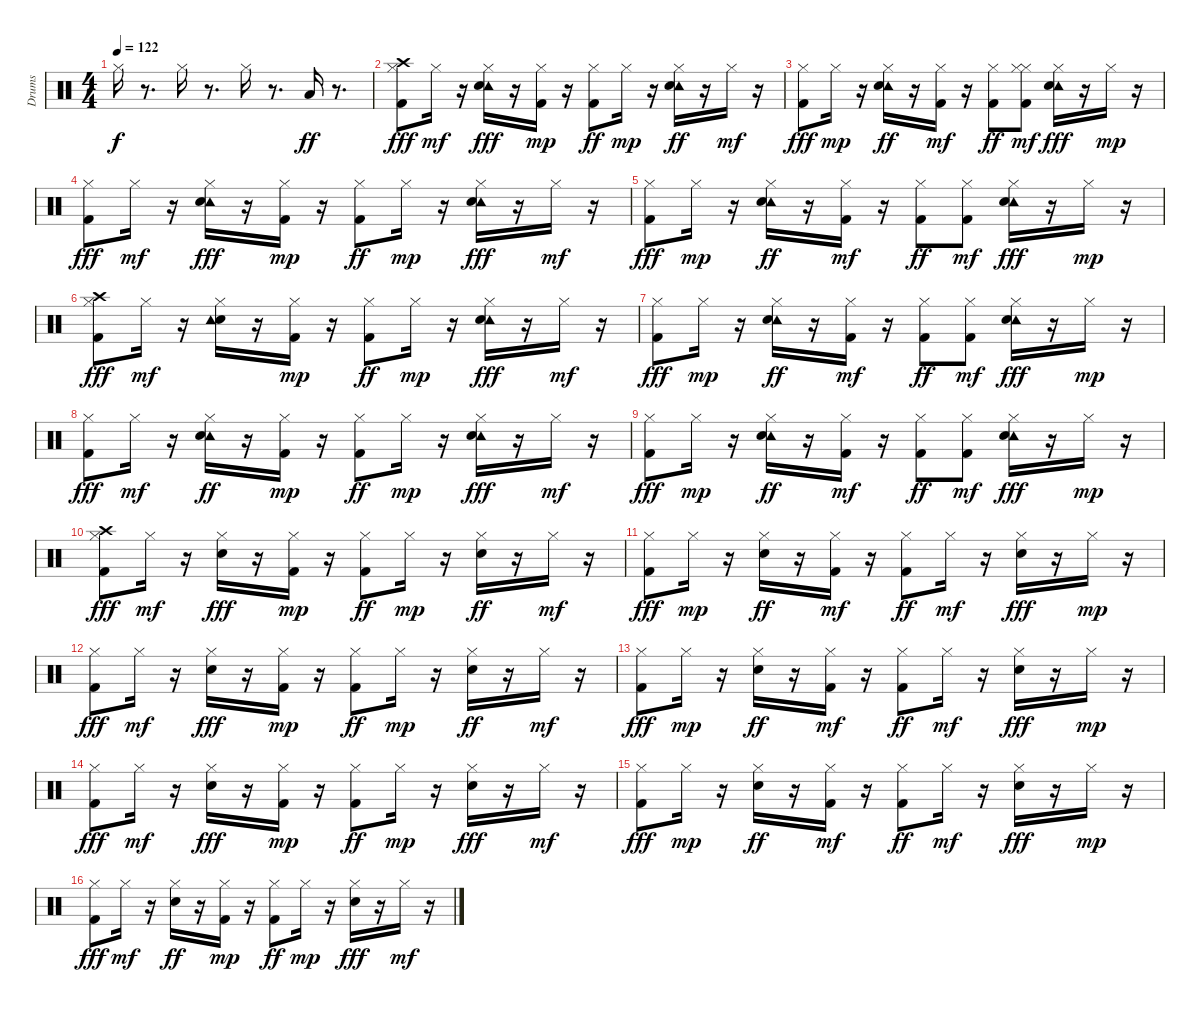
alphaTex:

\track ("Drums" "Drums") {instrument percussion}
\staff {score}
\articulation defaults
\ts (4 4)
\tempo 122
\clef neutral
\ks c "Hi-Hat (closed)".16{dy f}
r.8{d} "Hi-Hat (closed)".16 r.8{d} "Hi-Hat (closed)".16 r.8{d} "Low Tom (hit)".16{dy ff} r.8{d} |
("Crash high (hit)" "Hi-Hat (closed)" "Kick (hit) 2").8{dy fff} "Hi-Hat (closed)".16{dy mf} r.16 ("Tambourine (hit)" "Hi-Hat (closed)" "Snare (hit) 2").16{dy fff} r.16 ("Kick (hit) 2" "Hi-Hat (closed)").16{dy mp} r.16 ("Kick (hit) 2" "Hi-Hat (closed)").8{dy ff} "Hi-Hat (closed)".16{dy mp} r.16 ("Tambourine (hit)" "Snare (hit) 2" "Hi-Hat (closed)").16{dy ff} r.16 "Hi-Hat (closed)".16{dy mf} r.16 |
("Kick (hit) 2" "Hi-Hat (closed)").8{dy fff} "Hi-Hat (closed)".16{dy mp} r.16 ("Tambourine (hit)" "Snare (hit) 2" "Hi-Hat (closed)").16{dy ff} r.16 ("Kick (hit) 2" "Hi-Hat (closed)").16{dy mf} r.16 ("Kick (hit) 2" "Hi-Hat (closed)").8{dy ff} ("Kick (hit) 2" "Hi-Hat (closed)" "Hi-Hat (closed)").8{dy mf} ("Tambourine (hit)" "Snare (hit) 2" "Hi-Hat (closed)").16{dy fff} r.16 "Hi-Hat (closed)".16{dy mp} r.16 |
("Kick (hit) 2" "Hi-Hat (closed)").8{dy fff} "Hi-Hat (closed)".16{dy mf} r.16 ("Tambourine (hit)" "Hi-Hat (closed)" "Snare (hit) 2").16{dy fff} r.16 ("Kick (hit) 2" "Hi-Hat (closed)").16{dy mp} r.16 ("Kick (hit) 2" "Hi-Hat (closed)").8{dy ff} "Hi-Hat (closed)".16{dy mp} r.16 ("Tambourine (hit)" "Hi-Hat (closed)" "Snare (hit) 2").16{dy fff} r.16 "Hi-Hat (closed)".16{dy mf} r.16 |
("Kick (hit) 2" "Hi-Hat (closed)").8{dy fff} "Hi-Hat (closed)".16{dy mp} r.16 ("Tambourine (hit)" "Snare (hit) 2" "Hi-Hat (closed)").16{dy ff} r.16 ("Kick (hit) 2" "Hi-Hat (closed)").16{dy mf} r.16 ("Kick (hit) 2" "Hi-Hat (closed)").8{dy ff} ("Kick (hit) 2" "Hi-Hat (closed)").8{dy mf} ("Tambourine (hit)" "Snare (hit) 2" "Hi-Hat (closed)").16{dy fff} r.16 "Hi-Hat (closed)".16{dy mp} r.16 |
("Hi-Hat (closed)" "Crash high (hit)" "Kick (hit) 2").8{dy fff} "Hi-Hat (closed)".16{dy mf} r.16 ("Snare (hit) 2" "Hi-Hat (closed)" "Tambourine (hit)").16 r.16 ("Kick (hit) 2" "Hi-Hat (closed)").16{dy mp} r.16 ("Kick (hit) 2" "Hi-Hat (closed)").8{dy ff} "Hi-Hat (closed)".16{dy mp} r.16 ("Tambourine (hit)" "Hi-Hat (closed)" "Snare (hit) 2").16{dy fff} r.16 "Hi-Hat (closed)".16{dy mf} r.16 |
("Kick (hit) 2" "Hi-Hat (closed)").8{dy fff} "Hi-Hat (closed)".16{dy mp} r.16 ("Tambourine (hit)" "Snare (hit) 2" "Hi-Hat (closed)").16{dy ff} r.16 ("Kick (hit) 2" "Hi-Hat (closed)").16{dy mf} r.16 ("Kick (hit) 2" "Hi-Hat (closed)").8{dy ff} ("Kick (hit) 2" "Hi-Hat (closed)").8{dy mf} ("Tambourine (hit)" "Snare (hit) 2" "Hi-Hat (closed)").16{dy fff} r.16 "Hi-Hat (closed)".16{dy mp} r.16 |
("Hi-Hat (closed)" "Kick (hit) 2").8{dy fff} "Hi-Hat (closed)".16{dy mf} r.16 ("Tambourine (hit)" "Snare (hit) 2" "Hi-Hat (closed)").16{dy ff} r.16 ("Kick (hit) 2" "Hi-Hat (closed)").16{dy mp} r.16 ("Kick (hit) 2" "Hi-Hat (closed)").8{dy ff} "Hi-Hat (closed)".16{dy mp} r.16 ("Tambourine (hit)" "Hi-Hat (closed)" "Snare (hit) 2").16{dy fff} r.16 "Hi-Hat (closed)".16{dy mf} r.16 |
("Kick (hit) 2" "Hi-Hat (closed)").8{dy fff} "Hi-Hat (closed)".16{dy mp} r.16 ("Tambourine (hit)" "Snare (hit) 2" "Hi-Hat (closed)").16{dy ff} r.16 ("Kick (hit) 2" "Hi-Hat (closed)").16{dy mf} r.16 ("Kick (hit) 2" "Hi-Hat (closed)").8{dy ff} ("Kick (hit) 2" "Hi-Hat (closed)").8{dy mf} ("Tambourine (hit)" "Snare (hit) 2" "Hi-Hat (closed)").16{dy fff} r.16 "Hi-Hat (closed)".16{dy mp} r.16 |
("Crash high (hit)" "Hi-Hat (closed)" "Kick (hit) 2").8{dy fff} "Hi-Hat (closed)".16{dy mf} r.16 ("Hi-Hat (closed)" "Snare (hit) 2").16{dy fff} r.16 ("Kick (hit) 2" "Hi-Hat (closed)").16{dy mp} r.16 ("Kick (hit) 2" "Hi-Hat (closed)").8{dy ff} "Hi-Hat (closed)".16{dy mp} r.16 ("Snare (hit) 2" "Hi-Hat (closed)").16{dy ff} r.16 "Hi-Hat (closed)".16{dy mf} r.16 |
("Kick (hit) 2" "Hi-Hat (closed)").8{dy fff} "Hi-Hat (closed)".16{dy mp} r.16 ("Snare (hit) 2" "Hi-Hat (closed)").16{dy ff} r.16 ("Kick (hit) 2" "Hi-Hat (closed)").16{dy mf} r.16 ("Kick (hit) 2" "Hi-Hat (closed)").8{dy ff} "Hi-Hat (closed)".16{dy mf} r.16 ("Snare (hit) 2" "Hi-Hat (closed)").16{dy fff} r.16 "Hi-Hat (closed)".16{dy mp} r.16 |
("Kick (hit) 2" "Hi-Hat (closed)").8{dy fff} "Hi-Hat (closed)".16{dy mf} r.16 ("Hi-Hat (closed)" "Snare (hit) 2").16{dy fff} r.16 ("Kick (hit) 2" "Hi-Hat (closed)").16{dy mp} r.16 ("Kick (hit) 2" "Hi-Hat (closed)").8{dy ff} "Hi-Hat (closed)".16{dy mp} r.16 ("Snare (hit) 2" "Hi-Hat (closed)").16{dy ff} r.16 "Hi-Hat (closed)".16{dy mf} r.16 |
("Kick (hit) 2" "Hi-Hat (closed)").8{dy fff} "Hi-Hat (closed)".16{dy mp} r.16 ("Snare (hit) 2" "Hi-Hat (closed)").16{dy ff} r.16 ("Kick (hit) 2" "Hi-Hat (closed)").16{dy mf} r.16 ("Kick (hit) 2" "Hi-Hat (closed)").8{dy ff} "Hi-Hat (closed)".16{dy mf} r.16 ("Snare (hit) 2" "Hi-Hat (closed)").16{dy fff} r.16 "Hi-Hat (closed)".16{dy mp} r.16 |
("Hi-Hat (closed)" "Kick (hit) 2").8{dy fff} "Hi-Hat (closed)".16{dy mf} r.16 ("Hi-Hat (closed)" "Snare (hit) 2").16{dy fff} r.16 ("Kick (hit) 2" "Hi-Hat (closed)").16{dy mp} r.16 ("Kick (hit) 2" "Hi-Hat (closed)").8{dy ff} "Hi-Hat (closed)".16{dy mp} r.16 ("Hi-Hat (closed)" "Snare (hit) 2").16{dy fff} r.16 "Hi-Hat (closed)".16{dy mf} r.16 |
("Kick (hit) 2" "Hi-Hat (closed)").8{dy fff} "Hi-Hat (closed)".16{dy mp} r.16 ("Snare (hit) 2" "Hi-Hat (closed)").16{dy ff} r.16 ("Kick (hit) 2" "Hi-Hat (closed)").16{dy mf} r.16 ("Kick (hit) 2" "Hi-Hat (closed)").8{dy ff} "Hi-Hat (closed)".16{dy mf} r.16 ("Snare (hit) 2" "Hi-Hat (closed)").16{dy fff} r.16 "Hi-Hat (closed)".16{dy mp} r.16 |
("Kick (hit) 2" "Hi-Hat (closed)").8{dy fff} "Hi-Hat (closed)".16{dy mf} r.16 ("Snare (hit) 2" "Hi-Hat (closed)").16{dy ff} r.16 ("Kick (hit) 2" "Hi-Hat (closed)").16{dy mp} r.16 ("Kick (hit) 2" "Hi-Hat (closed)").8{dy ff} "Hi-Hat (closed)".16{dy mp} r.16 ("Hi-Hat (closed)" "Snare (hit) 2").16{dy fff} r.16 "Hi-Hat (closed)".16{dy mf} r.16
